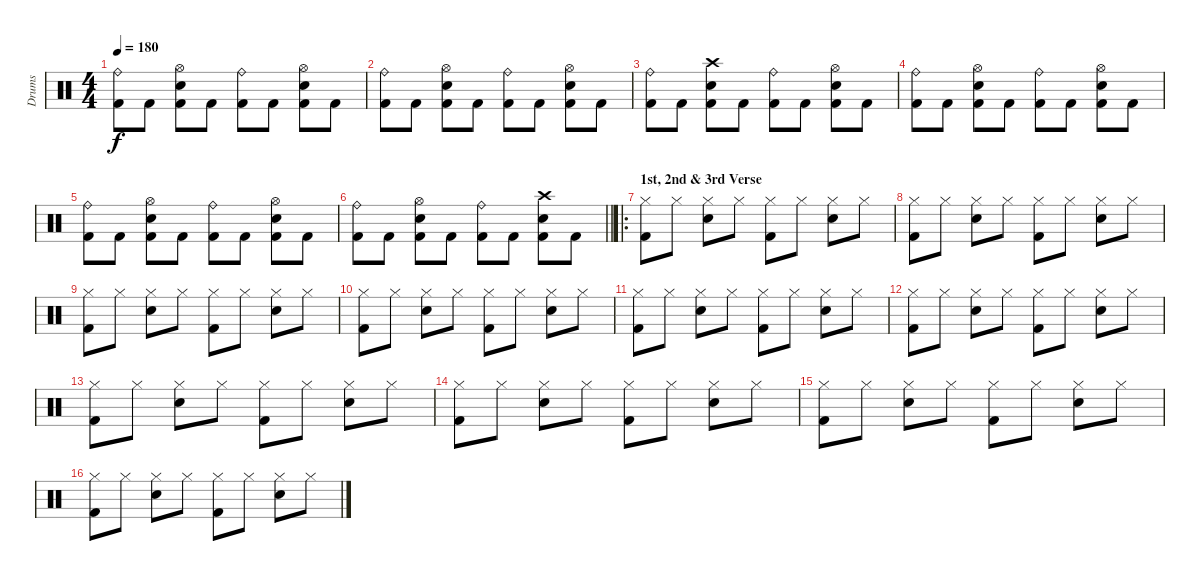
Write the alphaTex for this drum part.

\track ("Drums" "Drums") {instrument percussion}
\staff {score}
\articulation defaults
\ts (4 4)
\tempo 180
\clef neutral
\ks c
("Ride (bell)" "Kick (hit) 2").8{dy f} "Kick (hit) 2".8 ("Snare (hit) 2" "Hi-Hat (open)" "Kick (hit) 2").8 "Kick (hit) 2".8 ("Ride (bell)" "Kick (hit) 2").8 "Kick (hit) 2".8 ("Snare (hit) 2" "Hi-Hat (open)" "Kick (hit) 2").8 "Kick (hit) 2".8 |
("Ride (bell)" "Kick (hit) 2").8 "Kick (hit) 2".8 ("Snare (hit) 2" "Hi-Hat (open)" "Kick (hit) 2").8 "Kick (hit) 2".8 ("Ride (bell)" "Kick (hit) 2").8 "Kick (hit) 2".8 ("Snare (hit) 2" "Hi-Hat (open)" "Kick (hit) 2").8 "Kick (hit) 2".8 |
("Ride (bell)" "Kick (hit) 2").8 "Kick (hit) 2".8 ("Snare (hit) 2" "Crash high (hit)" "Kick (hit) 2").8 "Kick (hit) 2".8 ("Ride (bell)" "Kick (hit) 2").8 "Kick (hit) 2".8 ("Snare (hit) 2" "Hi-Hat (open)" "Kick (hit) 2").8 "Kick (hit) 2".8 |
("Ride (bell)" "Kick (hit) 2").8 "Kick (hit) 2".8 ("Snare (hit) 2" "Hi-Hat (open)" "Kick (hit) 2").8 "Kick (hit) 2".8 ("Ride (bell)" "Kick (hit) 2").8 "Kick (hit) 2".8 ("Snare (hit) 2" "Hi-Hat (open)" "Kick (hit) 2").8 "Kick (hit) 2".8 |
("Ride (bell)" "Kick (hit) 2").8 "Kick (hit) 2".8 ("Snare (hit) 2" "Hi-Hat (open)" "Kick (hit) 2").8 "Kick (hit) 2".8 ("Ride (bell)" "Kick (hit) 2").8 "Kick (hit) 2".8 ("Snare (hit) 2" "Hi-Hat (open)" "Kick (hit) 2").8 "Kick (hit) 2".8 |
\barLineRight lightlight
("Ride (bell)" "Kick (hit) 2").8 "Kick (hit) 2".8 ("Snare (hit) 2" "Hi-Hat (open)" "Kick (hit) 2").8 "Kick (hit) 2".8 ("Ride (bell)" "Kick (hit) 2").8 "Kick (hit) 2".8 ("Snare (hit) 2" "Crash high (hit)" "Kick (hit) 2").8 "Kick (hit) 2".8 |
\ro
\section ("" "1st, 2nd & 3rd Verse")
("Kick (hit) 2" "Hi-Hat (closed)").8 "Hi-Hat (closed)".8 ("Snare (hit) 2" "Hi-Hat (closed)").8 "Hi-Hat (closed)".8 ("Kick (hit) 2" "Hi-Hat (closed)").8 "Hi-Hat (closed)".8 ("Snare (hit) 2" "Hi-Hat (closed)").8 "Hi-Hat (closed)".8 |
("Kick (hit) 2" "Hi-Hat (closed)").8 "Hi-Hat (closed)".8 ("Snare (hit) 2" "Hi-Hat (closed)").8 "Hi-Hat (closed)".8 ("Kick (hit) 2" "Hi-Hat (closed)").8 "Hi-Hat (closed)".8 ("Snare (hit) 2" "Hi-Hat (closed)").8 "Hi-Hat (closed)".8 |
("Kick (hit) 2" "Hi-Hat (closed)").8 "Hi-Hat (closed)".8 ("Snare (hit) 2" "Hi-Hat (closed)").8 "Hi-Hat (closed)".8 ("Kick (hit) 2" "Hi-Hat (closed)").8 "Hi-Hat (closed)".8 ("Snare (hit) 2" "Hi-Hat (closed)").8 "Hi-Hat (closed)".8 |
("Kick (hit) 2" "Hi-Hat (closed)").8 "Hi-Hat (closed)".8 ("Snare (hit) 2" "Hi-Hat (closed)").8 "Hi-Hat (closed)".8 ("Kick (hit) 2" "Hi-Hat (closed)").8 "Hi-Hat (closed)".8 ("Snare (hit) 2" "Hi-Hat (closed)").8 "Hi-Hat (closed)".8 |
("Kick (hit) 2" "Hi-Hat (closed)").8 "Hi-Hat (closed)".8 ("Snare (hit) 2" "Hi-Hat (closed)").8 "Hi-Hat (closed)".8 ("Kick (hit) 2" "Hi-Hat (closed)").8 "Hi-Hat (closed)".8 ("Snare (hit) 2" "Hi-Hat (closed)").8 "Hi-Hat (closed)".8 |
("Kick (hit) 2" "Hi-Hat (closed)").8 "Hi-Hat (closed)".8 ("Snare (hit) 2" "Hi-Hat (closed)").8 "Hi-Hat (closed)".8 ("Kick (hit) 2" "Hi-Hat (closed)").8 "Hi-Hat (closed)".8 ("Snare (hit) 2" "Hi-Hat (closed)").8 "Hi-Hat (closed)".8 |
("Kick (hit) 2" "Hi-Hat (closed)").8 "Hi-Hat (closed)".8 ("Snare (hit) 2" "Hi-Hat (closed)").8 "Hi-Hat (closed)".8 ("Kick (hit) 2" "Hi-Hat (closed)").8 "Hi-Hat (closed)".8 ("Snare (hit) 2" "Hi-Hat (closed)").8 "Hi-Hat (closed)".8 |
("Kick (hit) 2" "Hi-Hat (closed)").8 "Hi-Hat (closed)".8 ("Snare (hit) 2" "Hi-Hat (closed)").8 "Hi-Hat (closed)".8 ("Kick (hit) 2" "Hi-Hat (closed)").8 "Hi-Hat (closed)".8 ("Snare (hit) 2" "Hi-Hat (closed)").8 "Hi-Hat (closed)".8 |
("Kick (hit) 2" "Hi-Hat (closed)").8 "Hi-Hat (closed)".8 ("Snare (hit) 2" "Hi-Hat (closed)").8 "Hi-Hat (closed)".8 ("Kick (hit) 2" "Hi-Hat (closed)").8 "Hi-Hat (closed)".8 ("Snare (hit) 2" "Hi-Hat (closed)").8 "Hi-Hat (closed)".8 |
("Kick (hit) 2" "Hi-Hat (closed)").8 "Hi-Hat (closed)".8 ("Snare (hit) 2" "Hi-Hat (closed)").8 "Hi-Hat (closed)".8 ("Kick (hit) 2" "Hi-Hat (closed)").8 "Hi-Hat (closed)".8 ("Snare (hit) 2" "Hi-Hat (closed)").8 "Hi-Hat (closed)".8
